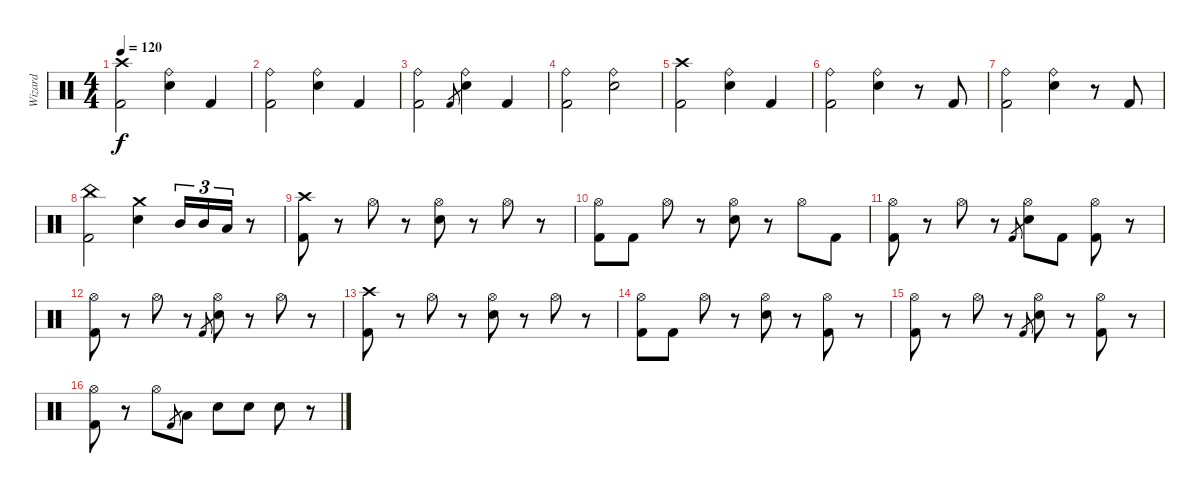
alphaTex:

\track ("Wizard" "Wizard") {instrument percussion}
\staff {score}
\articulation defaults
\ts (4 4)
\tempo 120
\clef neutral
\ks c
("Crash high (hit)" "Kick (hit) 2").2{dy f} ("Ride (bell)" "Snare (hit) 2").4 "Kick (hit) 2".4 |
("Ride (bell)" "Kick (hit) 2").2 ("Ride (bell)" "Snare (hit) 2").4 "Kick (hit) 2".4 |
("Ride (bell)" "Kick (hit) 2").2 "Kick (hit) 2".8{gr} ("Ride (bell)" "Snare (hit) 2").4 "Kick (hit) 2".4 |
("Ride (bell)" "Kick (hit) 2").2 ("Ride (bell)" "Snare (hit) 2").2 |
("Crash high (hit)" "Kick (hit) 2").2 ("Ride (bell)" "Snare (hit) 2").4 "Kick (hit) 2".4 |
("Ride (bell)" "Kick (hit) 2").2 ("Ride (bell)" "Snare (hit) 2").4 r.8 "Kick (hit) 2".8 |
("Ride (bell)" "Kick (hit) 2").2 ("Ride (bell)" "Snare (hit) 2").4 r.8 "Kick (hit) 2".8 |
("China (hit)" "Kick (hit) 2").2 ("Crash medium (hit)" "Snare (hit) 2").4 "Mid Tom (hit)".16{tu (3 2)} "Mid Tom (hit)".16{tu (3 2)} "Low Tom (hit)".16{tu (3 2)} r.8 |
("Crash high (hit)" "Kick (hit) 2").8 r.8 "Hi-Hat (open)".8 r.8 ("Hi-Hat (open)" "Snare (hit) 2").8 r.8 "Hi-Hat (open)".8 r.8 |
("Hi-Hat (open)" "Kick (hit) 2").8 "Kick (hit) 2".8 "Hi-Hat (open)".8 r.8 ("Hi-Hat (open)" "Snare (hit) 2").8 r.8 "Hi-Hat (open)".8 "Kick (hit) 2".8 |
("Hi-Hat (open)" "Kick (hit) 2").8 r.8 "Hi-Hat (open)".8 r.8 "Kick (hit) 2".8{gr} ("Hi-Hat (open)" "Snare (hit) 2").8 "Kick (hit) 2".8 ("Hi-Hat (open)" "Kick (hit) 2").8 r.8 |
("Hi-Hat (open)" "Kick (hit) 2").8 r.8 "Hi-Hat (open)".8 r.8 "Kick (hit) 2".8{gr} ("Hi-Hat (open)" "Snare (hit) 2").8 r.8 "Hi-Hat (open)".8 r.8 |
("Crash high (hit)" "Kick (hit) 2").8 r.8 "Hi-Hat (open)".8 r.8 ("Hi-Hat (open)" "Snare (hit) 2").8 r.8 "Hi-Hat (open)".8 r.8 |
("Hi-Hat (open)" "Kick (hit) 2").8 "Kick (hit) 2".8 "Hi-Hat (open)".8 r.8 ("Hi-Hat (open)" "Snare (hit) 2").8 r.8 ("Hi-Hat (open)" "Kick (hit) 2").8 r.8 |
("Hi-Hat (open)" "Kick (hit) 2").8 r.8 "Hi-Hat (open)".8 r.8 "Kick (hit) 2".8{gr} ("Hi-Hat (open)" "Snare (hit) 2").8 r.8 ("Hi-Hat (open)" "Kick (hit) 2").8 r.8 |
("Hi-Hat (open)" "Kick (hit) 2").8 r.8 "Hi-Hat (open)".8 "Kick (hit) 2".8{gr} "Low Tom (hit)".8 "Snare (hit) 2".8 "Snare (hit) 2".8 "Snare (hit) 2".8 r.8
